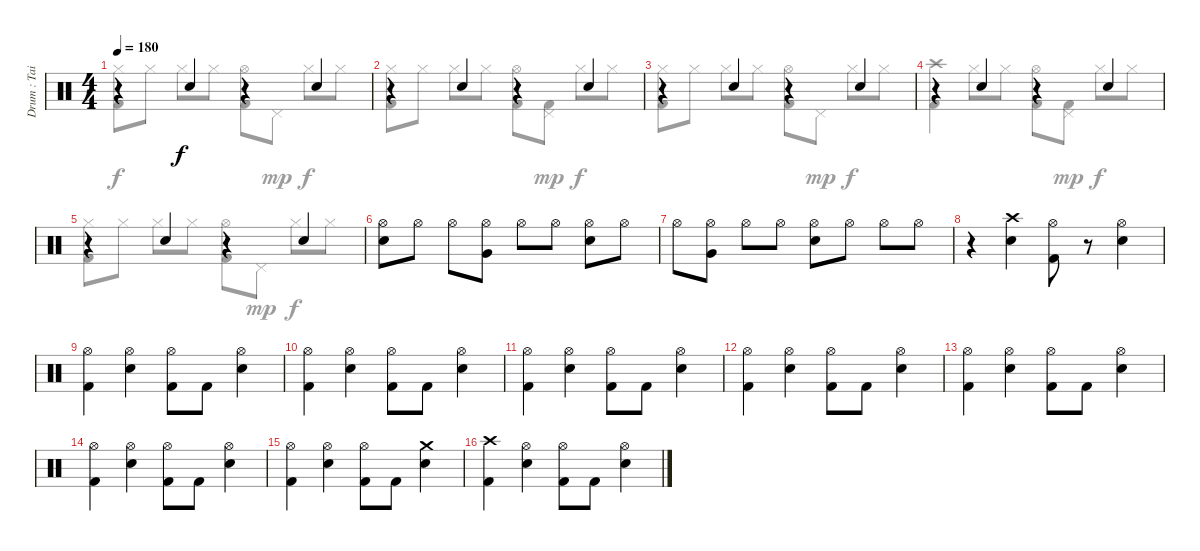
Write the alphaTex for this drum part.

\track ("Drum : Tainaka Ritsu" "Drum : Tai") {instrument percussion}
\staff {score}
\articulation defaults
\voice
\ts (4 4)
\tempo 180
\clef neutral
\ks c
r.4{dy f} "Snare (hit) 2".4 r.4 "Snare (hit) 2".4 |
r.4 "Snare (hit) 2".4 r.4 "Snare (hit) 2".4 |
r.4 "Snare (hit) 2".4 r.4 "Snare (hit) 2".4 |
r.4 "Snare (hit) 2".4 r.4 "Snare (hit) 2".4 |
r.4 "Snare (hit) 2".4 r.4 "Snare (hit) 2".4 |
("Hi-Hat (open)" "Snare (hit) 2").8 "Hi-Hat (open)".8 "Hi-Hat (open)".8 ("Hi-Hat (open)" "Very Low Tom (hit)").8 "Hi-Hat (open)".8 "Hi-Hat (open)".8 ("Hi-Hat (open)" "Snare (hit) 2").8 "Hi-Hat (open)".8 |
"Hi-Hat (open)".8 ("Hi-Hat (open)" "Very Low Tom (hit)").8 "Hi-Hat (open)".8 "Hi-Hat (open)".8 ("Hi-Hat (open)" "Snare (hit) 2").8 "Hi-Hat (open)".8 "Hi-Hat (open)".8 "Hi-Hat (open)".8 |
r.4 ("Crash high (hit)" "Snare (hit) 2").4 ("Hi-Hat (open)" "Kick (hit) 2").8 r.8 ("Hi-Hat (open)" "Snare (hit) 2").4 |
("Hi-Hat (open)" "Kick (hit) 2").4 ("Hi-Hat (open)" "Snare (hit) 2").4 ("Hi-Hat (open)" "Kick (hit) 2").8 "Kick (hit) 2".8 ("Hi-Hat (open)" "Snare (hit) 2").4 |
("Hi-Hat (open)" "Kick (hit) 2").4 ("Hi-Hat (open)" "Snare (hit) 2").4 ("Hi-Hat (open)" "Kick (hit) 2").8 "Kick (hit) 2".8 ("Hi-Hat (open)" "Snare (hit) 2").4 |
("Hi-Hat (open)" "Kick (hit) 2").4 ("Hi-Hat (open)" "Snare (hit) 2").4 ("Hi-Hat (open)" "Kick (hit) 2").8 "Kick (hit) 2".8 ("Hi-Hat (open)" "Snare (hit) 2").4 |
("Hi-Hat (open)" "Kick (hit) 2").4 ("Hi-Hat (open)" "Snare (hit) 2").4 ("Hi-Hat (open)" "Kick (hit) 2").8 "Kick (hit) 2".8 ("Hi-Hat (open)" "Snare (hit) 2").4 |
("Hi-Hat (open)" "Kick (hit) 2").4 ("Hi-Hat (open)" "Snare (hit) 2").4 ("Hi-Hat (open)" "Kick (hit) 2").8 "Kick (hit) 2".8 ("Hi-Hat (open)" "Snare (hit) 2").4 |
("Hi-Hat (open)" "Kick (hit) 2").4 ("Hi-Hat (open)" "Snare (hit) 2").4 ("Hi-Hat (open)" "Kick (hit) 2").8 "Kick (hit) 2".8 ("Hi-Hat (open)" "Snare (hit) 2").4 |
("Hi-Hat (open)" "Kick (hit) 2").4 ("Hi-Hat (open)" "Snare (hit) 2").4 ("Hi-Hat (open)" "Kick (hit) 2").8 "Kick (hit) 2".8 ("Crash medium (hit)" "Snare (hit) 2").4 |
("Crash high (hit)" "Kick (hit) 2").4 ("Hi-Hat (open)" "Snare (hit) 2").4 ("Hi-Hat (open)" "Kick (hit) 2").8 "Kick (hit) 2".8 ("Hi-Hat (open)" "Snare (hit) 2").4
\voice
\clef neutral
\ottava regular
\simile none
\ks c
("Hi-Hat (closed)" "Kick (hit) 2").8{dy f} "Hi-Hat (closed)".8 "Hi-Hat (closed)".8 "Hi-Hat (closed)".8 ("Hi-Hat (open)" "Kick (hit) 2").8 "Pedal Hi-Hat (hit)".8{dy mp} "Hi-Hat (closed)".8{dy f} "Hi-Hat (closed)".8 |
("Hi-Hat (closed)" "Kick (hit) 2").8 "Hi-Hat (closed)".8 "Hi-Hat (closed)".8 "Hi-Hat (closed)".8 ("Hi-Hat (open)" "Kick (hit) 2").8 ("Pedal Hi-Hat (hit)" "Kick (hit) 2").8{dy mp} "Hi-Hat (closed)".8{dy f} "Hi-Hat (closed)".8 |
("Hi-Hat (closed)" "Kick (hit) 2").8 "Hi-Hat (closed)".8 "Hi-Hat (closed)".8 "Hi-Hat (closed)".8 ("Hi-Hat (open)" "Kick (hit) 2").8 "Pedal Hi-Hat (hit)".8{dy mp} "Hi-Hat (closed)".8{dy f} "Hi-Hat (closed)".8 |
("Crash high (hit)" "Kick (hit) 2").4 "Hi-Hat (closed)".8 "Hi-Hat (closed)".8 ("Hi-Hat (open)" "Kick (hit) 2").8 ("Pedal Hi-Hat (hit)" "Kick (hit) 2").8{dy mp} "Hi-Hat (closed)".8{dy f} "Hi-Hat (closed)".8 |
("Hi-Hat (closed)" "Kick (hit) 2").8 "Hi-Hat (closed)".8 "Hi-Hat (closed)".8 "Hi-Hat (closed)".8 ("Hi-Hat (open)" "Kick (hit) 2").8 "Pedal Hi-Hat (hit)".8{dy mp} "Hi-Hat (closed)".8{dy f} "Hi-Hat (closed)".8 |
|
|
|
|
|
|
|
|
|
|
